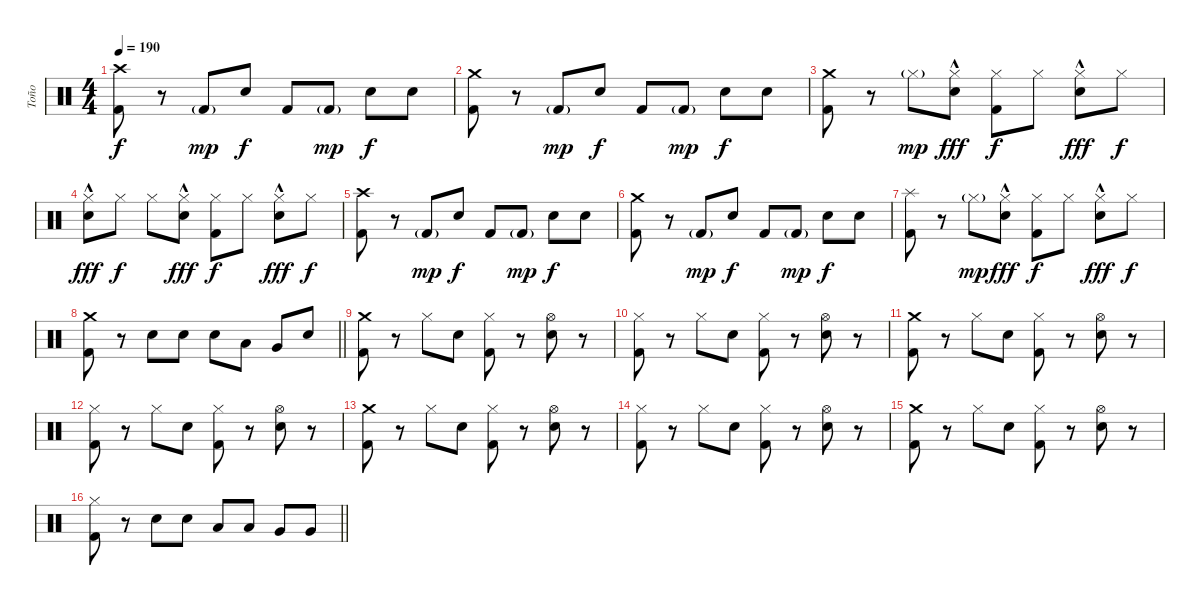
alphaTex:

\track ("Toño" "Toño") {instrument percussion}
\staff {score}
\articulation defaults
\ts (4 4)
\tempo 190
\clef neutral
\ks c
("Crash high (hit)" "Kick (hit) 2").8{dy f} r.8 "Kick (hit) 2"{g}.8{dy mp} "Snare (hit) 2".8{dy f} "Kick (hit) 2".8 "Kick (hit) 2"{g}.8{dy mp} "Snare (hit) 2".8{dy f} "Snare (hit) 2".8 |
("Crash medium (hit)" "Kick (hit) 2").8 r.8 "Kick (hit) 2"{g}.8{dy mp} "Snare (hit) 2".8{dy f} "Kick (hit) 2".8 "Kick (hit) 2"{g}.8{dy mp} "Snare (hit) 2".8{dy f} "Snare (hit) 2".8 |
("Crash medium (hit)" "Kick (hit) 2").8 r.8 "Hi-Hat (closed)"{g}.8{dy mp} ("Hi-Hat (closed)"{hac} "Snare (hit) 2").8{dy fff} ("Hi-Hat (closed)" "Kick (hit) 2").8{dy f} "Hi-Hat (closed)".8 ("Hi-Hat (closed)"{hac} "Snare (hit) 2").8{dy fff} "Hi-Hat (closed)".8{dy f} |
("Hi-Hat (closed)"{hac} "Snare (hit) 2").8{dy fff} "Hi-Hat (closed)".8{dy f} "Hi-Hat (closed)".8 ("Hi-Hat (closed)"{hac} "Snare (hit) 2").8{dy fff} ("Hi-Hat (closed)" "Kick (hit) 2").8{dy f} "Hi-Hat (closed)".8 ("Hi-Hat (closed)"{hac} "Snare (hit) 2").8{dy fff} "Hi-Hat (closed)".8{dy f} |
("Crash high (hit)" "Kick (hit) 2").8 r.8 "Kick (hit) 2"{g}.8{dy mp} "Snare (hit) 2".8{dy f} "Kick (hit) 2".8 "Kick (hit) 2"{g}.8{dy mp} "Snare (hit) 2".8{dy f} "Snare (hit) 2".8 |
("Crash medium (hit)" "Kick (hit) 2").8 r.8 "Kick (hit) 2"{g}.8{dy mp} "Snare (hit) 2".8{dy f} "Kick (hit) 2".8 "Kick (hit) 2"{g}.8{dy mp} "Snare (hit) 2".8{dy f} "Snare (hit) 2".8 |
("Splash (hit)" "Kick (hit) 2").8 r.8 "Hi-Hat (closed)"{g}.8{dy mp} ("Hi-Hat (closed)"{hac} "Snare (hit) 2").8{dy fff} ("Hi-Hat (closed)" "Kick (hit) 2").8{dy f} "Hi-Hat (closed)".8 ("Hi-Hat (closed)"{hac} "Snare (hit) 2").8{dy fff} "Hi-Hat (closed)".8{dy f} |
\barLineRight lightlight
("Crash medium (hit)" "Kick (hit) 2").8 r.8 "Snare (hit) 2".8 "Snare (hit) 2".8 "Snare (hit) 2".8 "Low Tom (hit)".8 "Very Low Tom (hit)".8 "Snare (hit) 2".8 |
("Crash medium (hit)" "Kick (hit) 2").8 r.8 "Hi-Hat (closed)".8 "Snare (hit) 2".8 ("Hi-Hat (closed)" "Kick (hit) 2").8 r.8 ("Hi-Hat (open)" "Snare (hit) 2").8 r.8 |
("Hi-Hat (closed)" "Kick (hit) 2").8 r.8 "Hi-Hat (closed)".8 "Snare (hit) 2".8 ("Hi-Hat (closed)" "Kick (hit) 2").8 r.8 ("Hi-Hat (open)" "Snare (hit) 2").8 r.8 |
("Crash medium (hit)" "Kick (hit) 2").8 r.8 "Hi-Hat (closed)".8 "Snare (hit) 2".8 ("Hi-Hat (closed)" "Kick (hit) 2").8 r.8 ("Hi-Hat (open)" "Snare (hit) 2").8 r.8 |
("Hi-Hat (closed)" "Kick (hit) 2").8 r.8 "Hi-Hat (closed)".8 "Snare (hit) 2".8 ("Hi-Hat (closed)" "Kick (hit) 2").8 r.8 ("Hi-Hat (open)" "Snare (hit) 2").8 r.8 |
("Crash medium (hit)" "Kick (hit) 2").8 r.8 "Hi-Hat (closed)".8 "Snare (hit) 2".8 ("Hi-Hat (closed)" "Kick (hit) 2").8 r.8 ("Hi-Hat (open)" "Snare (hit) 2").8 r.8 |
("Hi-Hat (closed)" "Kick (hit) 2").8 r.8 "Hi-Hat (closed)".8 "Snare (hit) 2".8 ("Hi-Hat (closed)" "Kick (hit) 2").8 r.8 ("Hi-Hat (open)" "Snare (hit) 2").8 r.8 |
("Crash medium (hit)" "Kick (hit) 2").8 r.8 "Hi-Hat (closed)".8 "Snare (hit) 2".8 ("Hi-Hat (closed)" "Kick (hit) 2").8 r.8 ("Hi-Hat (open)" "Snare (hit) 2").8 r.8 |
\barLineRight lightlight
("Hi-Hat (closed)" "Kick (hit) 2").8 r.8 "Snare (hit) 2".8 "Snare (hit) 2".8 "Low Tom (hit)".8 "Low Tom (hit)".8 "Very Low Tom (hit)".8 "Very Low Tom (hit)".8
